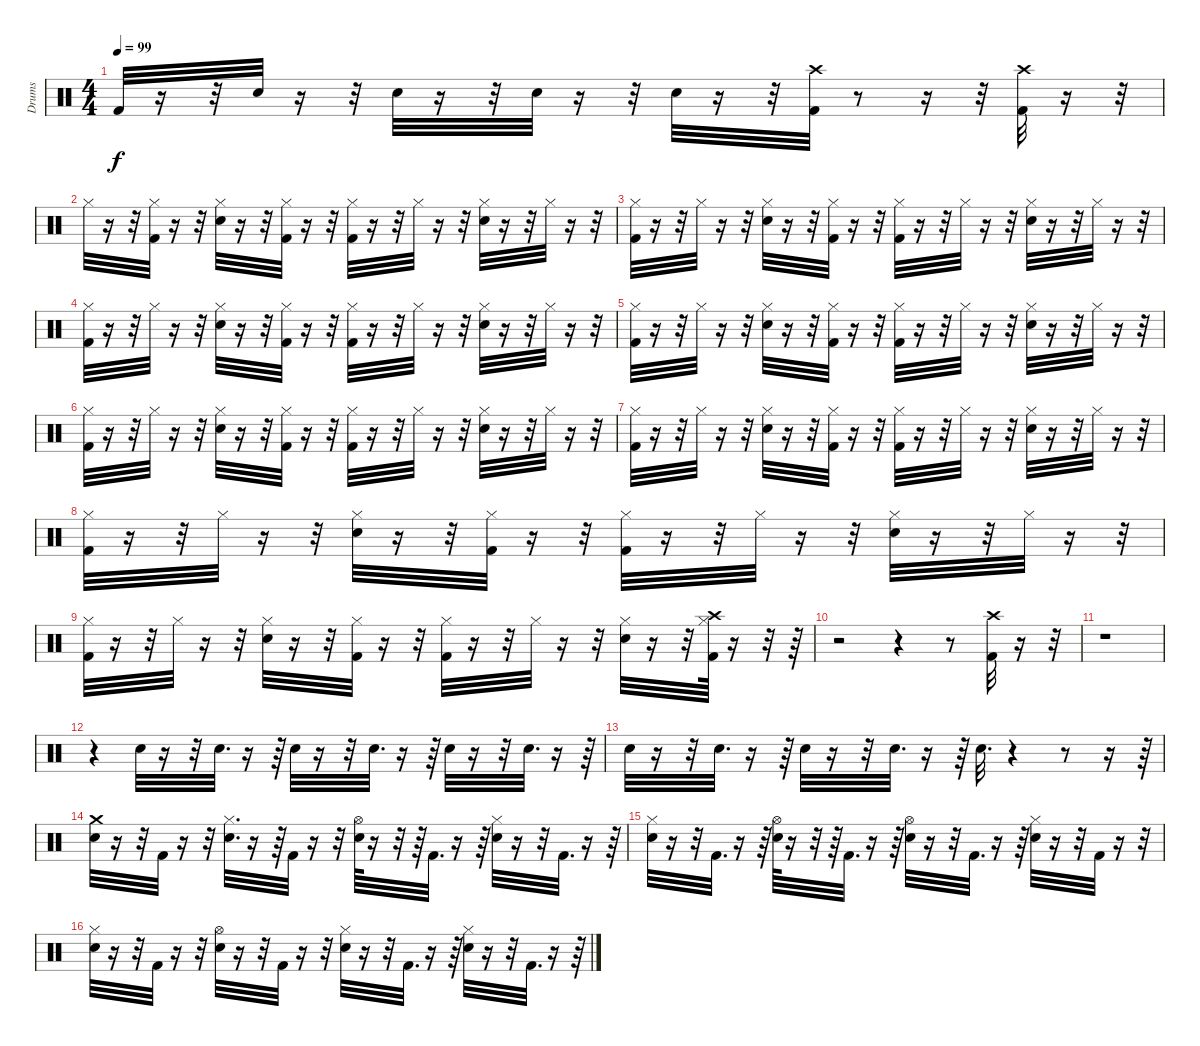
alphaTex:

\track ("Drums" "Drums") {instrument percussion}
\staff {score}
\articulation defaults
\ts (4 4)
\tempo 99
\clef neutral
\ks c "Kick (hit) 2".32{dy f}
r.16 r.32 "Snare (hit) 2".32 r.16 r.32 "Snare (hit) 2".32 r.16 r.32 "Snare (hit) 2".32 r.16 r.32 "Snare (hit) 2".32 r.16 r.32 ("Crash high (hit)" "Kick (hit) 2").32 r.8 r.16 r.32 ("Crash high (hit)" "Kick (hit) 2").32 r.16 r.32 |
"Hi-Hat (closed)".32 r.16 r.32 ("Hi-Hat (closed)" "Kick (hit) 2").32 r.16 r.32 ("Hi-Hat (closed)" "Snare (hit) 2").32 r.16 r.32 ("Hi-Hat (closed)" "Kick (hit) 2").32 r.16 r.32 ("Hi-Hat (closed)" "Kick (hit) 2").32 r.16 r.32 "Hi-Hat (closed)".32 r.16 r.32 ("Hi-Hat (closed)" "Snare (hit) 2").32 r.16 r.32 "Hi-Hat (closed)".32 r.16 r.32 |
("Hi-Hat (closed)" "Kick (hit) 2").32 r.16 r.32 "Hi-Hat (closed)".32 r.16 r.32 ("Hi-Hat (closed)" "Snare (hit) 2").32 r.16 r.32 ("Hi-Hat (closed)" "Kick (hit) 2").32 r.16 r.32 ("Hi-Hat (closed)" "Kick (hit) 2").32 r.16 r.32 "Hi-Hat (closed)".32 r.16 r.32 ("Hi-Hat (closed)" "Snare (hit) 2").32 r.16 r.32 "Hi-Hat (closed)".32 r.16 r.32 |
("Hi-Hat (closed)" "Kick (hit) 2").32 r.16 r.32 "Hi-Hat (closed)".32 r.16 r.32 ("Hi-Hat (closed)" "Snare (hit) 2").32 r.16 r.32 ("Hi-Hat (closed)" "Kick (hit) 2").32 r.16 r.32 ("Hi-Hat (closed)" "Kick (hit) 2").32 r.16 r.32 "Hi-Hat (closed)".32 r.16 r.32 ("Hi-Hat (closed)" "Snare (hit) 2").32 r.16 r.32 "Hi-Hat (closed)".32 r.16 r.32 |
("Hi-Hat (closed)" "Kick (hit) 2").32 r.16 r.32 "Hi-Hat (closed)".32 r.16 r.32 ("Hi-Hat (closed)" "Snare (hit) 2").32 r.16 r.32 ("Hi-Hat (closed)" "Kick (hit) 2").32 r.16 r.32 ("Hi-Hat (closed)" "Kick (hit) 2").32 r.16 r.32 "Hi-Hat (closed)".32 r.16 r.32 ("Hi-Hat (closed)" "Snare (hit) 2").32 r.16 r.32 "Hi-Hat (closed)".32 r.16 r.32 |
("Hi-Hat (closed)" "Kick (hit) 2").32 r.16 r.32 "Hi-Hat (closed)".32 r.16 r.32 ("Hi-Hat (closed)" "Snare (hit) 2").32 r.16 r.32 ("Hi-Hat (closed)" "Kick (hit) 2").32 r.16 r.32 ("Hi-Hat (closed)" "Kick (hit) 2").32 r.16 r.32 "Hi-Hat (closed)".32 r.16 r.32 ("Hi-Hat (closed)" "Snare (hit) 2").32 r.16 r.32 "Hi-Hat (closed)".32 r.16 r.32 |
("Hi-Hat (closed)" "Kick (hit) 2").32 r.16 r.32 "Hi-Hat (closed)".32 r.16 r.32 ("Hi-Hat (closed)" "Snare (hit) 2").32 r.16 r.32 ("Hi-Hat (closed)" "Kick (hit) 2").32 r.16 r.32 ("Hi-Hat (closed)" "Kick (hit) 2").32 r.16 r.32 "Hi-Hat (closed)".32 r.16 r.32 ("Hi-Hat (closed)" "Snare (hit) 2").32 r.16 r.32 "Hi-Hat (closed)".32 r.16 r.32 |
("Hi-Hat (closed)" "Kick (hit) 2").32 r.16 r.32 "Hi-Hat (closed)".32 r.16 r.32 ("Hi-Hat (closed)" "Snare (hit) 2").32 r.16 r.32 ("Hi-Hat (closed)" "Kick (hit) 2").32 r.16 r.32 ("Hi-Hat (closed)" "Kick (hit) 2").32 r.16 r.32 "Hi-Hat (closed)".32 r.16 r.32 ("Hi-Hat (closed)" "Snare (hit) 2").32 r.16 r.32 "Hi-Hat (closed)".32 r.16 r.32 |
("Hi-Hat (closed)" "Kick (hit) 2").32 r.16 r.32 "Hi-Hat (closed)".32 r.16 r.32 ("Hi-Hat (closed)" "Snare (hit) 2").32 r.16 r.32 ("Hi-Hat (closed)" "Kick (hit) 2").32 r.16 r.32 ("Hi-Hat (closed)" "Kick (hit) 2").32 r.16 r.32 "Hi-Hat (closed)".32 r.16 r.32 ("Hi-Hat (closed)" "Snare (hit) 2").32 r.16 r.32 ("Crash high (hit)" "Hi-Hat (closed)" "Kick (hit) 2").64 r.16 r.32 r.64 |
r.2 r.4 r.8 ("Kick (hit) 2" "Crash high (hit)").32 r.16 r.32 |
r.1 |
r.4 "Snare (hit) 2".32 r.16 r.32 "Snare (hit) 2".32{d} r.16 r.64 "Snare (hit) 2".32 r.16 r.32 "Snare (hit) 2".32{d} r.16 r.64 "Snare (hit) 2".32 r.16 r.32 "Snare (hit) 2".32{d} r.16 r.64 |
"Snare (hit) 2".32 r.16 r.32 "Snare (hit) 2".32{d} r.16 r.64 "Snare (hit) 2".32 r.16 r.32 "Snare (hit) 2".32{d} r.16 r.64 "Snare (hit) 2".32{d} r.4 r.8 r.16 r.64 |
("Crash medium (hit)" "Snare (hit) 2").32 r.16 r.32 "Kick (hit) 2".32 r.16 r.32 ("Hi-Hat (closed)" "Snare (hit) 2").32{d} r.16 r.64 "Kick (hit) 2".32 r.16 r.32 ("Hi-Hat (open)" "Snare (hit) 2").64 r.16 r.32 r.64 "Kick (hit) 2".32{d} r.16 r.64 ("Hi-Hat (closed)" "Snare (hit) 2").32 r.16 r.32 "Kick (hit) 2".32{d} r.16 r.64 |
("Hi-Hat (closed)" "Snare (hit) 2").32 r.16 r.32 "Kick (hit) 2".32{d} r.16 r.64 ("Hi-Hat (open)" "Snare (hit) 2").64 r.16 r.32 r.64 "Kick (hit) 2".32{d} r.16 r.64 ("Hi-Hat (open)" "Snare (hit) 2").32 r.16 r.32 "Kick (hit) 2".32{d} r.16 r.64 ("Hi-Hat (closed)" "Snare (hit) 2").32 r.16 r.32 "Kick (hit) 2".32 r.16 r.32 |
("Hi-Hat (closed)" "Snare (hit) 2").32 r.16 r.32 "Kick (hit) 2".32 r.16 r.32 ("Hi-Hat (open)" "Snare (hit) 2").32 r.16 r.32 "Kick (hit) 2".32 r.16 r.32 ("Hi-Hat (closed)" "Snare (hit) 2").32 r.16 r.32 "Kick (hit) 2".32{d} r.16 r.64 ("Hi-Hat (closed)" "Snare (hit) 2").32 r.16 r.32 "Kick (hit) 2".32{d} r.16 r.64
